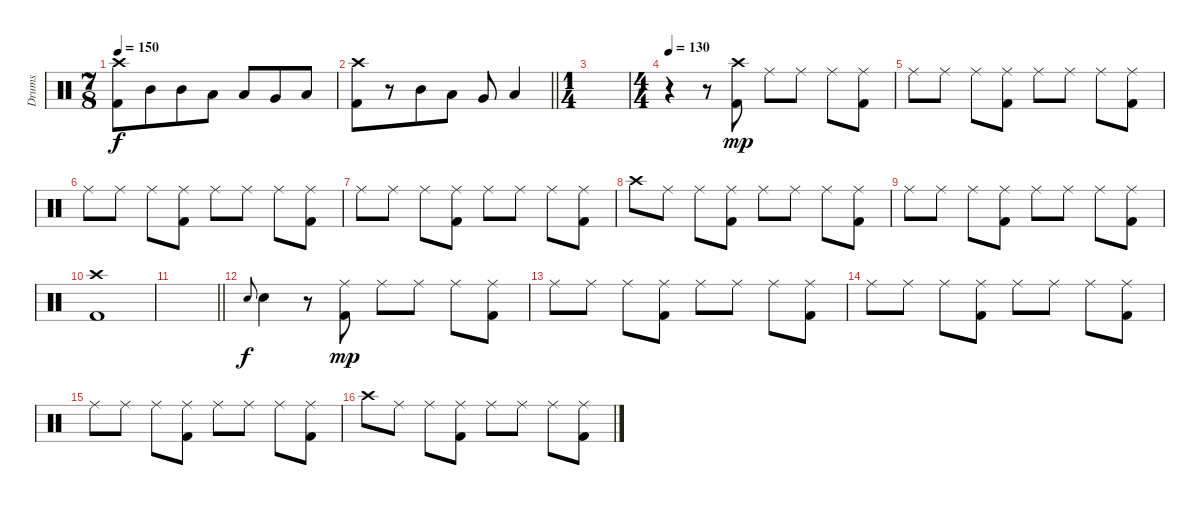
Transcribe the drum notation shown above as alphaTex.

\track ("Drums" "Drums") {instrument percussion}
\staff {score}
\articulation defaults
\ts (7 8)
\tempo 150
\clef neutral
\ks c
("Crash high (hit)" "Kick (hit) 2").8{dy f} "Mid Tom (hit)".8 "Mid Tom (hit)".8 "Low Tom (hit)".8 "Low Tom (hit)".8 "Very Low Tom (hit)".8 "Low Floor Tom (hit)".8 |
\barLineRight lightlight
("Crash high (hit)" "Kick (hit) 2").8 r.8 "Mid Tom (hit)".8 "Low Tom (hit)".8 "Very Low Tom (hit)".8 "Low Floor Tom (hit)".4 |
\ts (1 4)
|
\ts (4 4)
\tempo 130
r.4 r.8 ("Crash high (hit)" "Kick (hit) 2").8{dy mp} "Ride (middle)".8 "Ride (middle)".8 "Ride (middle)".8 ("Ride (middle)" "Kick (hit) 2").8 |
"Ride (middle)".8 "Ride (middle)".8 "Ride (middle)".8 ("Ride (middle)" "Kick (hit) 2").8 "Ride (middle)".8 "Ride (middle)".8 "Ride (middle)".8 ("Ride (middle)" "Kick (hit) 2").8 |
"Ride (middle)".8 "Ride (middle)".8 "Ride (middle)".8 ("Ride (middle)" "Kick (hit) 2").8 "Ride (middle)".8 "Ride (middle)".8 "Ride (middle)".8 ("Ride (middle)" "Kick (hit) 2").8 |
"Ride (middle)".8 "Ride (middle)".8 "Ride (middle)".8 ("Ride (middle)" "Kick (hit) 2").8 "Ride (middle)".8 "Ride (middle)".8 "Ride (middle)".8 ("Ride (middle)" "Kick (hit) 2").8 |
"Crash high (hit)".8 "Ride (middle)".8 "Ride (middle)".8 ("Ride (middle)" "Kick (hit) 2").8 "Ride (middle)".8 "Ride (middle)".8 "Ride (middle)".8 ("Ride (middle)" "Kick (hit) 2").8 |
"Ride (middle)".8 "Ride (middle)".8 "Ride (middle)".8 ("Ride (middle)" "Kick (hit) 2").8 "Ride (middle)".8 "Ride (middle)".8 "Ride (middle)".8 ("Ride (middle)" "Kick (hit) 2").8 |
("Crash high (hit)" "Kick (hit) 2").1 |
\barLineRight lightlight
|
"Snare (hit) 2".8{gr onbeat dy f} "Snare (hit) 2".4 r.8 ("Ride (middle)" "Kick (hit) 2").8{dy mp volume 8} "Ride (middle)".8 "Ride (middle)".8 "Ride (middle)".8 ("Ride (middle)" "Kick (hit) 2").8 |
"Ride (middle)".8 "Ride (middle)".8 "Ride (middle)".8 ("Ride (middle)" "Kick (hit) 2").8 "Ride (middle)".8 "Ride (middle)".8 "Ride (middle)".8 ("Ride (middle)" "Kick (hit) 2").8 |
"Ride (middle)".8 "Ride (middle)".8 "Ride (middle)".8 ("Ride (middle)" "Kick (hit) 2").8 "Ride (middle)".8 "Ride (middle)".8 "Ride (middle)".8 ("Ride (middle)" "Kick (hit) 2").8 |
"Ride (middle)".8 "Ride (middle)".8 "Ride (middle)".8 ("Ride (middle)" "Kick (hit) 2").8 "Ride (middle)".8 "Ride (middle)".8 "Ride (middle)".8 ("Ride (middle)" "Kick (hit) 2").8 |
"Crash high (hit)".8 "Ride (middle)".8 "Ride (middle)".8 ("Ride (middle)" "Kick (hit) 2").8 "Ride (middle)".8 "Ride (middle)".8 "Ride (middle)".8 ("Ride (middle)" "Kick (hit) 2").8
